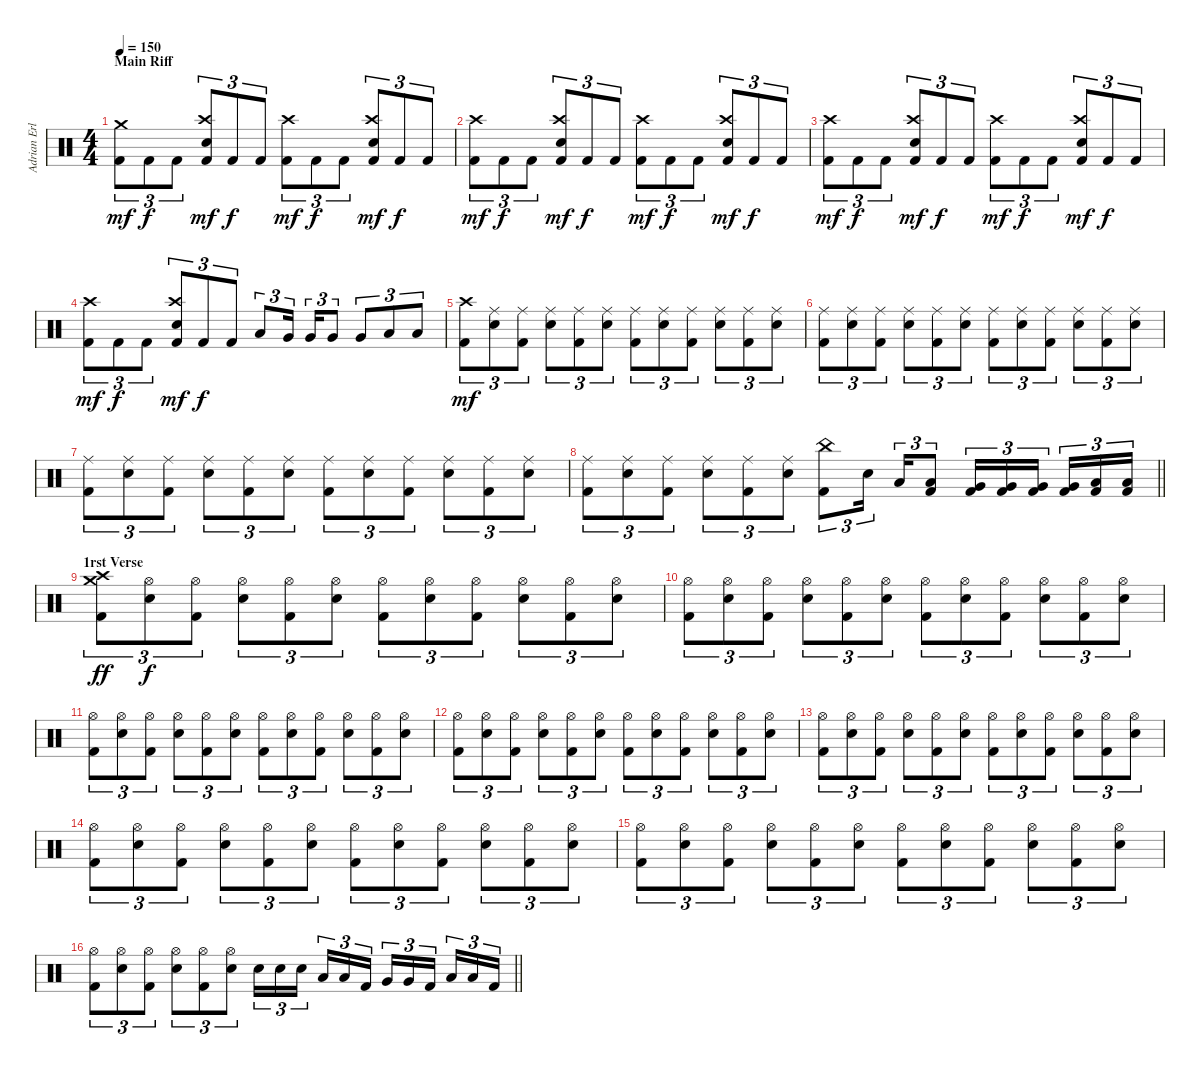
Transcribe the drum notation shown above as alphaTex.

\track ("Adrian Erlandsson" "Adrian Erl") {instrument percussion}
\staff {score}
\articulation defaults
\ts (4 4)
\section ("" "Main Riff")
\tempo 150
\clef neutral
\ks c
("Crash medium (hit)" "Kick (hit) 2").8{tu (3 2) dy mf} "Kick (hit) 2".8{tu (3 2) dy f} "Kick (hit) 2".8{tu (3 2)} ("Crash high (hit)" "Snare (hit) 2" "Kick (hit) 2").8{tu (3 2) dy mf} "Kick (hit) 2".8{tu (3 2) dy f} "Kick (hit) 2".8{tu (3 2)} ("Crash high (hit)" "Kick (hit) 2").8{tu (3 2) dy mf} "Kick (hit) 2".8{tu (3 2) dy f} "Kick (hit) 2".8{tu (3 2)} ("Crash high (hit)" "Snare (hit) 2" "Kick (hit) 2").8{tu (3 2) dy mf} "Kick (hit) 2".8{tu (3 2) dy f} "Kick (hit) 2".8{tu (3 2)} |
("Crash high (hit)" "Kick (hit) 2").8{tu (3 2) dy mf} "Kick (hit) 2".8{tu (3 2) dy f} "Kick (hit) 2".8{tu (3 2)} ("Crash high (hit)" "Snare (hit) 2" "Kick (hit) 2").8{tu (3 2) dy mf} "Kick (hit) 2".8{tu (3 2) dy f} "Kick (hit) 2".8{tu (3 2)} ("Crash high (hit)" "Kick (hit) 2").8{tu (3 2) dy mf} "Kick (hit) 2".8{tu (3 2) dy f} "Kick (hit) 2".8{tu (3 2)} ("Crash high (hit)" "Snare (hit) 2" "Kick (hit) 2").8{tu (3 2) dy mf} "Kick (hit) 2".8{tu (3 2) dy f} "Kick (hit) 2".8{tu (3 2)} |
("Crash high (hit)" "Kick (hit) 2").8{tu (3 2) dy mf} "Kick (hit) 2".8{tu (3 2) dy f} "Kick (hit) 2".8{tu (3 2)} ("Crash high (hit)" "Snare (hit) 2" "Kick (hit) 2").8{tu (3 2) dy mf} "Kick (hit) 2".8{tu (3 2) dy f} "Kick (hit) 2".8{tu (3 2)} ("Crash high (hit)" "Kick (hit) 2").8{tu (3 2) dy mf} "Kick (hit) 2".8{tu (3 2) dy f} "Kick (hit) 2".8{tu (3 2)} ("Crash high (hit)" "Snare (hit) 2" "Kick (hit) 2").8{tu (3 2) dy mf} "Kick (hit) 2".8{tu (3 2) dy f} "Kick (hit) 2".8{tu (3 2)} |
("Crash high (hit)" "Kick (hit) 2").8{tu (3 2) dy mf} "Kick (hit) 2".8{tu (3 2) dy f} "Kick (hit) 2".8{tu (3 2)} ("Crash high (hit)" "Snare (hit) 2" "Kick (hit) 2").8{tu (3 2) dy mf} "Kick (hit) 2".8{tu (3 2) dy f} "Kick (hit) 2".8{tu (3 2)} "Low Tom (hit)".8{tu (3 2)} "Very Low Tom (hit)".16{tu (3 2) beam splitsecondary} "Very Low Tom (hit)".16{tu (3 2)} "Very Low Tom (hit)".8{tu (3 2)} "Very Low Tom (hit)".8{tu (3 2)} "Low Floor Tom (hit)".8{tu (3 2)} "Low Floor Tom (hit)".8{tu (3 2)} |
("Crash high (hit)" "Kick (hit) 2").8{tu (3 2) dy mf} ("Ride (middle)" "Snare (hit) 2").8{tu (3 2)} ("Ride (middle)" "Kick (hit) 2").8{tu (3 2)} ("Ride (middle)" "Snare (hit) 2").8{tu (3 2)} ("Ride (middle)" "Kick (hit) 2").8{tu (3 2)} ("Ride (middle)" "Snare (hit) 2").8{tu (3 2)} ("Ride (middle)" "Kick (hit) 2").8{tu (3 2)} ("Ride (middle)" "Snare (hit) 2").8{tu (3 2)} ("Ride (middle)" "Kick (hit) 2").8{tu (3 2)} ("Ride (middle)" "Snare (hit) 2").8{tu (3 2)} ("Ride (middle)" "Kick (hit) 2").8{tu (3 2)} ("Ride (middle)" "Snare (hit) 2").8{tu (3 2)} |
("Ride (middle)" "Kick (hit) 2").8{tu (3 2)} ("Ride (middle)" "Snare (hit) 2").8{tu (3 2)} ("Ride (middle)" "Kick (hit) 2").8{tu (3 2)} ("Ride (middle)" "Snare (hit) 2").8{tu (3 2)} ("Ride (middle)" "Kick (hit) 2").8{tu (3 2)} ("Ride (middle)" "Snare (hit) 2").8{tu (3 2)} ("Ride (middle)" "Kick (hit) 2").8{tu (3 2)} ("Ride (middle)" "Snare (hit) 2").8{tu (3 2)} ("Ride (middle)" "Kick (hit) 2").8{tu (3 2)} ("Ride (middle)" "Snare (hit) 2").8{tu (3 2)} ("Ride (middle)" "Kick (hit) 2").8{tu (3 2)} ("Ride (middle)" "Snare (hit) 2").8{tu (3 2)} |
("Ride (middle)" "Kick (hit) 2").8{tu (3 2)} ("Ride (middle)" "Snare (hit) 2").8{tu (3 2)} ("Ride (middle)" "Kick (hit) 2").8{tu (3 2)} ("Ride (middle)" "Snare (hit) 2").8{tu (3 2)} ("Ride (middle)" "Kick (hit) 2").8{tu (3 2)} ("Ride (middle)" "Snare (hit) 2").8{tu (3 2)} ("Ride (middle)" "Kick (hit) 2").8{tu (3 2)} ("Ride (middle)" "Snare (hit) 2").8{tu (3 2)} ("Ride (middle)" "Kick (hit) 2").8{tu (3 2)} ("Ride (middle)" "Snare (hit) 2").8{tu (3 2)} ("Ride (middle)" "Kick (hit) 2").8{tu (3 2)} ("Ride (middle)" "Snare (hit) 2").8{tu (3 2)} |
\barLineRight lightlight
("Ride (middle)" "Kick (hit) 2").8{tu (3 2)} ("Ride (middle)" "Snare (hit) 2").8{tu (3 2)} ("Ride (middle)" "Kick (hit) 2").8{tu (3 2)} ("Ride (middle)" "Snare (hit) 2").8{tu (3 2)} ("Ride (middle)" "Kick (hit) 2").8{tu (3 2)} ("Ride (middle)" "Snare (hit) 2").8{tu (3 2)} ("China (hit)" "Kick (hit) 2").8{tu (3 2)} "Snare (hit) 2".16{tu (3 2) beam splitsecondary} "Low Tom (hit)".16{tu (3 2)} ("Low Tom (hit)" "Kick (hit) 2").8{tu (3 2)} ("Very Low Tom (hit)" "Kick (hit) 2").16{tu (3 2)} ("Very Low Tom (hit)" "Kick (hit) 2").16{tu (3 2)} ("Very Low Tom (hit)" "Kick (hit) 2").16{tu (3 2) beam splitsecondary} ("Very Low Tom (hit)" "Kick (hit) 2").16{tu (3 2)} ("Low Floor Tom (hit)" "Kick (hit) 2").16{tu (3 2)} ("Low Floor Tom (hit)" "Kick (hit) 2").16{tu (3 2)} |
\section ("" "1rst Verse")
("Crash high (hit)" "Crash medium (hit)" "Kick (hit) 2").8{tu (3 2) dy ff} ("Hi-Hat (open)" "Snare (hit) 2").8{tu (3 2) dy f} ("Hi-Hat (open)" "Kick (hit) 2").8{tu (3 2)} ("Hi-Hat (open)" "Snare (hit) 2").8{tu (3 2)} ("Hi-Hat (open)" "Kick (hit) 2").8{tu (3 2)} ("Hi-Hat (open)" "Snare (hit) 2").8{tu (3 2)} ("Hi-Hat (open)" "Kick (hit) 2").8{tu (3 2)} ("Hi-Hat (open)" "Snare (hit) 2").8{tu (3 2)} ("Hi-Hat (open)" "Kick (hit) 2").8{tu (3 2)} ("Hi-Hat (open)" "Snare (hit) 2").8{tu (3 2)} ("Hi-Hat (open)" "Kick (hit) 2").8{tu (3 2)} ("Hi-Hat (open)" "Snare (hit) 2").8{tu (3 2)} |
("Hi-Hat (open)" "Kick (hit) 2").8{tu (3 2)} ("Hi-Hat (open)" "Snare (hit) 2").8{tu (3 2)} ("Hi-Hat (open)" "Kick (hit) 2").8{tu (3 2)} ("Hi-Hat (open)" "Snare (hit) 2").8{tu (3 2)} ("Hi-Hat (open)" "Kick (hit) 2").8{tu (3 2)} ("Hi-Hat (open)" "Snare (hit) 2").8{tu (3 2)} ("Hi-Hat (open)" "Kick (hit) 2").8{tu (3 2)} ("Hi-Hat (open)" "Snare (hit) 2").8{tu (3 2)} ("Hi-Hat (open)" "Kick (hit) 2").8{tu (3 2)} ("Hi-Hat (open)" "Snare (hit) 2").8{tu (3 2)} ("Hi-Hat (open)" "Kick (hit) 2").8{tu (3 2)} ("Hi-Hat (open)" "Snare (hit) 2").8{tu (3 2)} |
("Hi-Hat (open)" "Kick (hit) 2").8{tu (3 2)} ("Hi-Hat (open)" "Snare (hit) 2").8{tu (3 2)} ("Hi-Hat (open)" "Kick (hit) 2").8{tu (3 2)} ("Hi-Hat (open)" "Snare (hit) 2").8{tu (3 2)} ("Hi-Hat (open)" "Kick (hit) 2").8{tu (3 2)} ("Hi-Hat (open)" "Snare (hit) 2").8{tu (3 2)} ("Hi-Hat (open)" "Kick (hit) 2").8{tu (3 2)} ("Hi-Hat (open)" "Snare (hit) 2").8{tu (3 2)} ("Hi-Hat (open)" "Kick (hit) 2").8{tu (3 2)} ("Hi-Hat (open)" "Snare (hit) 2").8{tu (3 2)} ("Hi-Hat (open)" "Kick (hit) 2").8{tu (3 2)} ("Hi-Hat (open)" "Snare (hit) 2").8{tu (3 2)} |
("Hi-Hat (open)" "Kick (hit) 2").8{tu (3 2)} ("Hi-Hat (open)" "Snare (hit) 2").8{tu (3 2)} ("Hi-Hat (open)" "Kick (hit) 2").8{tu (3 2)} ("Hi-Hat (open)" "Snare (hit) 2").8{tu (3 2)} ("Hi-Hat (open)" "Kick (hit) 2").8{tu (3 2)} ("Hi-Hat (open)" "Snare (hit) 2").8{tu (3 2)} ("Hi-Hat (open)" "Kick (hit) 2").8{tu (3 2)} ("Hi-Hat (open)" "Snare (hit) 2").8{tu (3 2)} ("Hi-Hat (open)" "Kick (hit) 2").8{tu (3 2)} ("Hi-Hat (open)" "Snare (hit) 2").8{tu (3 2)} ("Hi-Hat (open)" "Kick (hit) 2").8{tu (3 2)} ("Hi-Hat (open)" "Snare (hit) 2").8{tu (3 2)} |
("Hi-Hat (open)" "Kick (hit) 2").8{tu (3 2)} ("Hi-Hat (open)" "Snare (hit) 2").8{tu (3 2)} ("Hi-Hat (open)" "Kick (hit) 2").8{tu (3 2)} ("Hi-Hat (open)" "Snare (hit) 2").8{tu (3 2)} ("Hi-Hat (open)" "Kick (hit) 2").8{tu (3 2)} ("Hi-Hat (open)" "Snare (hit) 2").8{tu (3 2)} ("Hi-Hat (open)" "Kick (hit) 2").8{tu (3 2)} ("Hi-Hat (open)" "Snare (hit) 2").8{tu (3 2)} ("Hi-Hat (open)" "Kick (hit) 2").8{tu (3 2)} ("Hi-Hat (open)" "Snare (hit) 2").8{tu (3 2)} ("Hi-Hat (open)" "Kick (hit) 2").8{tu (3 2)} ("Hi-Hat (open)" "Snare (hit) 2").8{tu (3 2)} |
("Hi-Hat (open)" "Kick (hit) 2").8{tu (3 2)} ("Hi-Hat (open)" "Snare (hit) 2").8{tu (3 2)} ("Hi-Hat (open)" "Kick (hit) 2").8{tu (3 2)} ("Hi-Hat (open)" "Snare (hit) 2").8{tu (3 2)} ("Hi-Hat (open)" "Kick (hit) 2").8{tu (3 2)} ("Hi-Hat (open)" "Snare (hit) 2").8{tu (3 2)} ("Hi-Hat (open)" "Kick (hit) 2").8{tu (3 2)} ("Hi-Hat (open)" "Snare (hit) 2").8{tu (3 2)} ("Hi-Hat (open)" "Kick (hit) 2").8{tu (3 2)} ("Hi-Hat (open)" "Snare (hit) 2").8{tu (3 2)} ("Hi-Hat (open)" "Kick (hit) 2").8{tu (3 2)} ("Hi-Hat (open)" "Snare (hit) 2").8{tu (3 2)} |
("Hi-Hat (open)" "Kick (hit) 2").8{tu (3 2)} ("Hi-Hat (open)" "Snare (hit) 2").8{tu (3 2)} ("Hi-Hat (open)" "Kick (hit) 2").8{tu (3 2)} ("Hi-Hat (open)" "Snare (hit) 2").8{tu (3 2)} ("Hi-Hat (open)" "Kick (hit) 2").8{tu (3 2)} ("Hi-Hat (open)" "Snare (hit) 2").8{tu (3 2)} ("Hi-Hat (open)" "Kick (hit) 2").8{tu (3 2)} ("Hi-Hat (open)" "Snare (hit) 2").8{tu (3 2)} ("Hi-Hat (open)" "Kick (hit) 2").8{tu (3 2)} ("Hi-Hat (open)" "Snare (hit) 2").8{tu (3 2)} ("Hi-Hat (open)" "Kick (hit) 2").8{tu (3 2)} ("Hi-Hat (open)" "Snare (hit) 2").8{tu (3 2)} |
\barLineRight lightlight
("Hi-Hat (open)" "Kick (hit) 2").8{tu (3 2)} ("Hi-Hat (open)" "Snare (hit) 2").8{tu (3 2)} ("Hi-Hat (open)" "Kick (hit) 2").8{tu (3 2)} ("Hi-Hat (open)" "Snare (hit) 2").8{tu (3 2)} ("Hi-Hat (open)" "Kick (hit) 2").8{tu (3 2)} ("Hi-Hat (open)" "Snare (hit) 2").8{tu (3 2)} "Snare (hit) 2".16{tu (3 2)} "Snare (hit) 2".16{tu (3 2)} "Snare (hit) 2".16{tu (3 2) beam splitsecondary} "Low Tom (hit)".16{tu (3 2)} "Low Tom (hit)".16{tu (3 2)} "Kick (hit) 2".16{tu (3 2)} "Very Low Tom (hit)".16{tu (3 2)} "Very Low Tom (hit)".16{tu (3 2)} "Kick (hit) 2".16{tu (3 2) beam splitsecondary} "Low Floor Tom (hit)".16{tu (3 2)} "Low Floor Tom (hit)".16{tu (3 2)} "Kick (hit) 2".16{tu (3 2)}
